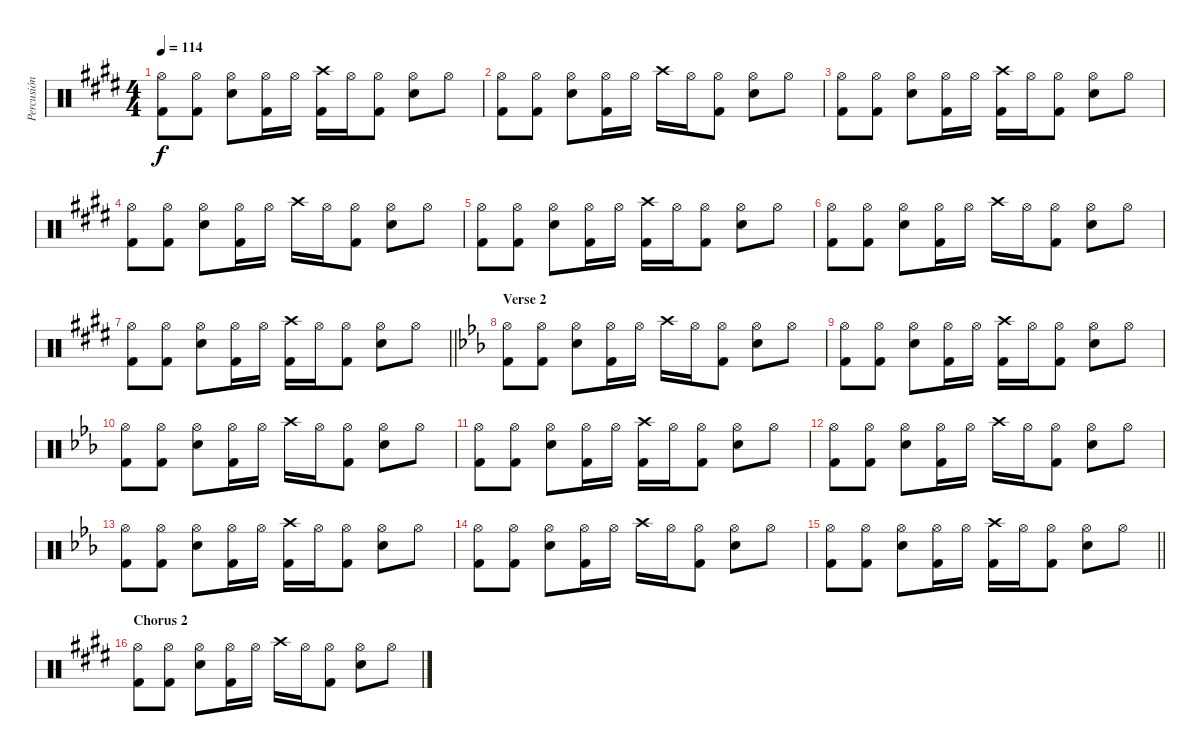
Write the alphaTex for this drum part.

\track ("Percusión" "Percusión") {instrument percussion}
\staff {score}
\articulation defaults
\ts (4 4)
\tempo 114
\clef neutral
\ks c#minor
("Hi-Hat (open)" "Kick (hit) 2").8{dy f} ("Hi-Hat (open)" "Kick (hit) 2").8 ("Hi-Hat (open)" "Snare (hit) 2").8 ("Hi-Hat (open)" "Kick (hit) 2").16 "Hi-Hat (open)".16 ("Crash high (hit)" "Kick (hit) 2").16 "Hi-Hat (open)".16 ("Hi-Hat (open)" "Kick (hit) 2").8 ("Hi-Hat (open)" "Snare (hit) 2").8 "Hi-Hat (open)".8 |
("Hi-Hat (open)" "Kick (hit) 2").8 ("Hi-Hat (open)" "Kick (hit) 2").8 ("Hi-Hat (open)" "Snare (hit) 2").8 ("Hi-Hat (open)" "Kick (hit) 2").16 "Hi-Hat (open)".16 "Crash high (hit)".16 "Hi-Hat (open)".16 ("Hi-Hat (open)" "Kick (hit) 2").8 ("Hi-Hat (open)" "Snare (hit) 2").8 "Hi-Hat (open)".8 |
("Hi-Hat (open)" "Kick (hit) 2").8 ("Hi-Hat (open)" "Kick (hit) 2").8 ("Hi-Hat (open)" "Snare (hit) 2").8 ("Hi-Hat (open)" "Kick (hit) 2").16 "Hi-Hat (open)".16 ("Crash high (hit)" "Kick (hit) 2").16 "Hi-Hat (open)".16 ("Hi-Hat (open)" "Kick (hit) 2").8 ("Hi-Hat (open)" "Snare (hit) 2").8 "Hi-Hat (open)".8 |
\ks e
("Hi-Hat (open)" "Kick (hit) 2").8 ("Hi-Hat (open)" "Kick (hit) 2").8 ("Hi-Hat (open)" "Snare (hit) 2").8 ("Hi-Hat (open)" "Kick (hit) 2").16 "Hi-Hat (open)".16 "Crash high (hit)".16 "Hi-Hat (open)".16 ("Hi-Hat (open)" "Kick (hit) 2").8 ("Hi-Hat (open)" "Snare (hit) 2").8 "Hi-Hat (open)".8 |
\ks c#minor
("Hi-Hat (open)" "Kick (hit) 2").8 ("Hi-Hat (open)" "Kick (hit) 2").8 ("Hi-Hat (open)" "Snare (hit) 2").8 ("Hi-Hat (open)" "Kick (hit) 2").16 "Hi-Hat (open)".16 ("Crash high (hit)" "Kick (hit) 2").16 "Hi-Hat (open)".16 ("Hi-Hat (open)" "Kick (hit) 2").8 ("Hi-Hat (open)" "Snare (hit) 2").8 "Hi-Hat (open)".8 |
("Hi-Hat (open)" "Kick (hit) 2").8 ("Hi-Hat (open)" "Kick (hit) 2").8 ("Hi-Hat (open)" "Snare (hit) 2").8 ("Hi-Hat (open)" "Kick (hit) 2").16 "Hi-Hat (open)".16 "Crash high (hit)".16 "Hi-Hat (open)".16 ("Hi-Hat (open)" "Kick (hit) 2").8 ("Hi-Hat (open)" "Snare (hit) 2").8 "Hi-Hat (open)".8 |
\barLineRight lightlight
("Hi-Hat (open)" "Kick (hit) 2").8 ("Hi-Hat (open)" "Kick (hit) 2").8 ("Hi-Hat (open)" "Snare (hit) 2").8 ("Hi-Hat (open)" "Kick (hit) 2").16 "Hi-Hat (open)".16 ("Crash high (hit)" "Kick (hit) 2").16 "Hi-Hat (open)".16 ("Hi-Hat (open)" "Kick (hit) 2").8 ("Hi-Hat (open)" "Snare (hit) 2").8 "Hi-Hat (open)".8 |
\section ("" "Verse 2")
\ks eb
("Hi-Hat (open)" "Kick (hit) 2").8 ("Hi-Hat (open)" "Kick (hit) 2").8 ("Hi-Hat (open)" "Snare (hit) 2").8 ("Hi-Hat (open)" "Kick (hit) 2").16 "Hi-Hat (open)".16 "Crash high (hit)".16 "Hi-Hat (open)".16 ("Hi-Hat (open)" "Kick (hit) 2").8 ("Hi-Hat (open)" "Snare (hit) 2").8 "Hi-Hat (open)".8 |
("Hi-Hat (open)" "Kick (hit) 2").8 ("Hi-Hat (open)" "Kick (hit) 2").8 ("Hi-Hat (open)" "Snare (hit) 2").8 ("Hi-Hat (open)" "Kick (hit) 2").16 "Hi-Hat (open)".16 ("Crash high (hit)" "Kick (hit) 2").16 "Hi-Hat (open)".16 ("Hi-Hat (open)" "Kick (hit) 2").8 ("Hi-Hat (open)" "Snare (hit) 2").8 "Hi-Hat (open)".8 |
("Hi-Hat (open)" "Kick (hit) 2").8 ("Hi-Hat (open)" "Kick (hit) 2").8 ("Hi-Hat (open)" "Snare (hit) 2").8 ("Hi-Hat (open)" "Kick (hit) 2").16 "Hi-Hat (open)".16 "Crash high (hit)".16 "Hi-Hat (open)".16 ("Hi-Hat (open)" "Kick (hit) 2").8 ("Hi-Hat (open)" "Snare (hit) 2").8 "Hi-Hat (open)".8 |
("Hi-Hat (open)" "Kick (hit) 2").8 ("Hi-Hat (open)" "Kick (hit) 2").8 ("Hi-Hat (open)" "Snare (hit) 2").8 ("Hi-Hat (open)" "Kick (hit) 2").16 "Hi-Hat (open)".16 ("Crash high (hit)" "Kick (hit) 2").16 "Hi-Hat (open)".16 ("Hi-Hat (open)" "Kick (hit) 2").8 ("Hi-Hat (open)" "Snare (hit) 2").8 "Hi-Hat (open)".8 |
("Hi-Hat (open)" "Kick (hit) 2").8 ("Hi-Hat (open)" "Kick (hit) 2").8 ("Hi-Hat (open)" "Snare (hit) 2").8 ("Hi-Hat (open)" "Kick (hit) 2").16 "Hi-Hat (open)".16 "Crash high (hit)".16 "Hi-Hat (open)".16 ("Hi-Hat (open)" "Kick (hit) 2").8 ("Hi-Hat (open)" "Snare (hit) 2").8 "Hi-Hat (open)".8 |
("Hi-Hat (open)" "Kick (hit) 2").8 ("Hi-Hat (open)" "Kick (hit) 2").8 ("Hi-Hat (open)" "Snare (hit) 2").8 ("Hi-Hat (open)" "Kick (hit) 2").16 "Hi-Hat (open)".16 ("Crash high (hit)" "Kick (hit) 2").16 "Hi-Hat (open)".16 ("Hi-Hat (open)" "Kick (hit) 2").8 ("Hi-Hat (open)" "Snare (hit) 2").8 "Hi-Hat (open)".8 |
("Hi-Hat (open)" "Kick (hit) 2").8 ("Hi-Hat (open)" "Kick (hit) 2").8 ("Hi-Hat (open)" "Snare (hit) 2").8 ("Hi-Hat (open)" "Kick (hit) 2").16 "Hi-Hat (open)".16 "Crash high (hit)".16 "Hi-Hat (open)".16 ("Hi-Hat (open)" "Kick (hit) 2").8 ("Hi-Hat (open)" "Snare (hit) 2").8 "Hi-Hat (open)".8 |
\barLineRight lightlight
("Hi-Hat (open)" "Kick (hit) 2").8 ("Hi-Hat (open)" "Kick (hit) 2").8 ("Hi-Hat (open)" "Snare (hit) 2").8 ("Hi-Hat (open)" "Kick (hit) 2").16 "Hi-Hat (open)".16 ("Crash high (hit)" "Kick (hit) 2").16 "Hi-Hat (open)".16 ("Hi-Hat (open)" "Kick (hit) 2").8 ("Hi-Hat (open)" "Snare (hit) 2").8 "Hi-Hat (open)".8 |
\section ("" "Chorus 2")
\ks e
("Hi-Hat (open)" "Kick (hit) 2").8 ("Hi-Hat (open)" "Kick (hit) 2").8 ("Hi-Hat (open)" "Snare (hit) 2").8 ("Hi-Hat (open)" "Kick (hit) 2").16 "Hi-Hat (open)".16 "Crash high (hit)".16 "Hi-Hat (open)".16 ("Hi-Hat (open)" "Kick (hit) 2").8 ("Hi-Hat (open)" "Snare (hit) 2").8 "Hi-Hat (open)".8
